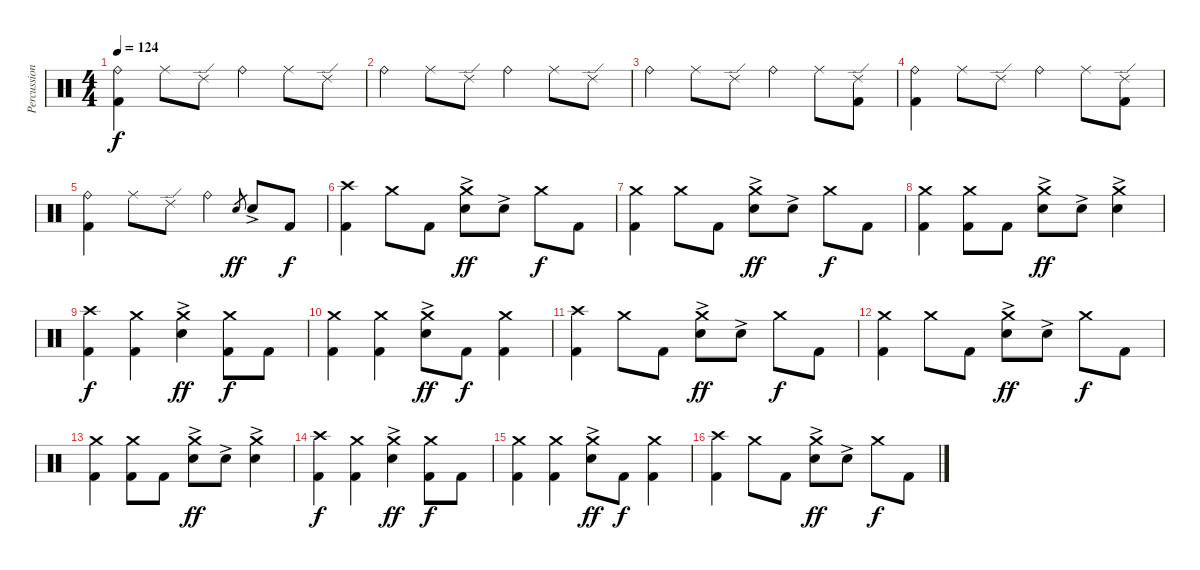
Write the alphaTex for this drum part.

\track ("Percussion" "Percussion") {instrument percussion}
\staff {score}
\articulation defaults
\ts (4 4)
\tempo 124
\clef neutral
\ks c
("Ride (bell)" "Kick (hit) 2").4{dy f} "Ride (middle)".8 "Ride (edge) 2".8 "Ride (bell)".4 "Ride (middle)".8 "Ride (edge) 2".8 |
"Ride (bell)".4 "Ride (middle)".8 "Ride (edge) 2".8 "Ride (bell)".4 "Ride (middle)".8 "Ride (edge) 2".8 |
"Ride (bell)".4 "Ride (middle)".8 "Ride (edge) 2".8 "Ride (bell)".4 "Ride (middle)".8 ("Ride (edge) 2" "Kick (hit) 2").8 |
("Ride (bell)" "Kick (hit) 2").4 "Ride (middle)".8 "Ride (edge) 2".8 "Ride (bell)".4 "Ride (middle)".8 ("Ride (edge) 2" "Kick (hit) 2").8 |
("Ride (bell)" "Kick (hit) 2").4 "Ride (middle)".8 "Ride (edge) 2".8 "Ride (bell)".4 "Electric Snare (hit)".8{gr dy ff} "Electric Snare (hit)"{ac}.8 "Kick (hit) 2".8{dy f} |
("Crash high (hit)" "Kick (hit) 2").4 "Crash medium (hit)".8 "Kick (hit) 2".8 ("Crash medium (hit)" "Electric Snare (hit)"{ac}).8{dy ff} "Electric Snare (hit)"{ac}.8 "Crash medium (hit)".8{dy f} "Kick (hit) 2".8 |
("Crash medium (hit)" "Kick (hit) 2").4 "Crash medium (hit)".8 "Kick (hit) 2".8 ("Crash medium (hit)" "Electric Snare (hit)"{ac}).8{dy ff} "Electric Snare (hit)"{ac}.8 "Crash medium (hit)".8{dy f} "Kick (hit) 2".8 |
("Crash medium (hit)" "Kick (hit) 2").4 ("Crash medium (hit)" "Kick (hit) 2").8 "Kick (hit) 2".8 ("Crash medium (hit)" "Electric Snare (hit)"{ac}).8{dy ff} "Electric Snare (hit)"{ac}.8 ("Crash medium (hit)" "Electric Snare (hit)"{ac}).4 |
("Crash high (hit)" "Kick (hit) 2").4{dy f} ("Crash medium (hit)" "Kick (hit) 2").4 ("Crash medium (hit)" "Electric Snare (hit)"{ac}).4{dy ff} ("Crash medium (hit)" "Kick (hit) 2").8{dy f} "Kick (hit) 2".8 |
("Crash medium (hit)" "Kick (hit) 2").4 ("Crash medium (hit)" "Kick (hit) 2").4 ("Crash medium (hit)" "Electric Snare (hit)"{ac}).8{dy ff} "Kick (hit) 2".8{dy f} ("Crash medium (hit)" "Kick (hit) 2").4 |
("Crash high (hit)" "Kick (hit) 2").4 "Crash medium (hit)".8 "Kick (hit) 2".8 ("Crash medium (hit)" "Electric Snare (hit)"{ac}).8{dy ff} "Electric Snare (hit)"{ac}.8 "Crash medium (hit)".8{dy f} "Kick (hit) 2".8 |
("Crash medium (hit)" "Kick (hit) 2").4 "Crash medium (hit)".8 "Kick (hit) 2".8 ("Crash medium (hit)" "Electric Snare (hit)"{ac}).8{dy ff} "Electric Snare (hit)"{ac}.8 "Crash medium (hit)".8{dy f} "Kick (hit) 2".8 |
("Crash medium (hit)" "Kick (hit) 2").4 ("Crash medium (hit)" "Kick (hit) 2").8 "Kick (hit) 2".8 ("Crash medium (hit)" "Electric Snare (hit)"{ac}).8{dy ff} "Electric Snare (hit)"{ac}.8 ("Crash medium (hit)" "Electric Snare (hit)"{ac}).4 |
("Crash high (hit)" "Kick (hit) 2").4{dy f} ("Crash medium (hit)" "Kick (hit) 2").4 ("Crash medium (hit)" "Electric Snare (hit)"{ac}).4{dy ff} ("Crash medium (hit)" "Kick (hit) 2").8{dy f} "Kick (hit) 2".8 |
("Crash medium (hit)" "Kick (hit) 2").4 ("Crash medium (hit)" "Kick (hit) 2").4 ("Crash medium (hit)" "Electric Snare (hit)"{ac}).8{dy ff} "Kick (hit) 2".8{dy f} ("Crash medium (hit)" "Kick (hit) 2").4 |
("Crash high (hit)" "Kick (hit) 2").4 "Crash medium (hit)".8 "Kick (hit) 2".8 ("Crash medium (hit)" "Electric Snare (hit)"{ac}).8{dy ff} "Electric Snare (hit)"{ac}.8 "Crash medium (hit)".8{dy f} "Kick (hit) 2".8
